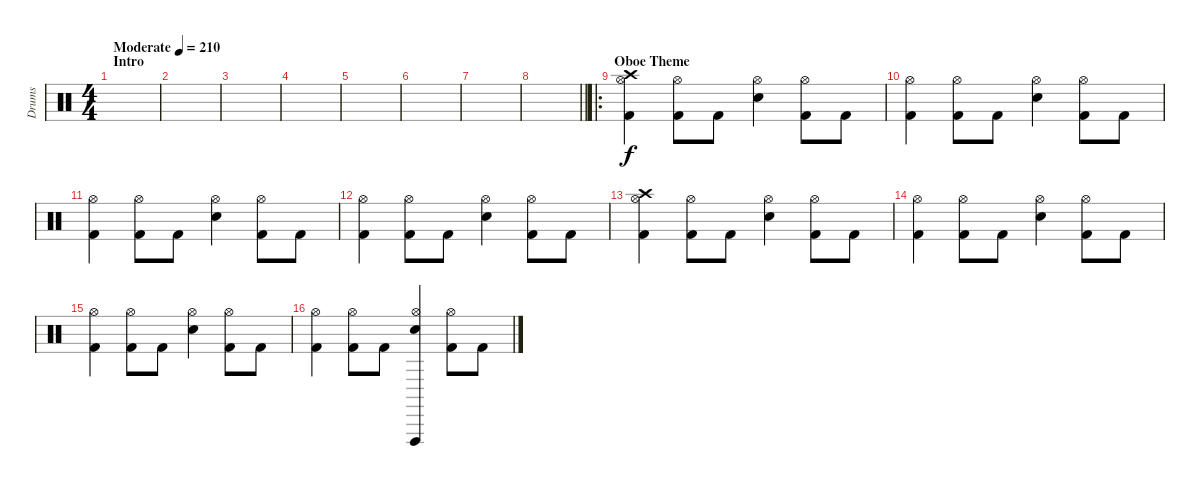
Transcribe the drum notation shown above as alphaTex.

\track ("Drums" "Drums") {instrument percussion}
\staff {score}
\articulation defaults
\ts (4 4)
\section ("" "Intro")
\tempo (210 "Moderate")
\clef neutral
\ks c
|
|
|
|
|
|
|
\barLineRight lightlight
|
\ro
\section ("" "Oboe Theme")
("Crash high (hit)" "Hi-Hat (open)" "Kick (hit) 2").4 ("Hi-Hat (open)" "Kick (hit) 2").8 "Kick (hit) 2".8 ("Hi-Hat (open)" "Snare (hit) 2").4 ("Hi-Hat (open)" "Kick (hit) 2").8 "Kick (hit) 2".8 |
("Hi-Hat (open)" "Kick (hit) 2").4 ("Hi-Hat (open)" "Kick (hit) 2").8 "Kick (hit) 2".8 ("Hi-Hat (open)" "Snare (hit) 2").4 ("Hi-Hat (open)" "Kick (hit) 2").8 "Kick (hit) 2".8 |
("Hi-Hat (open)" "Kick (hit) 2").4 ("Hi-Hat (open)" "Kick (hit) 2").8 "Kick (hit) 2".8 ("Hi-Hat (open)" "Snare (hit) 2").4 ("Hi-Hat (open)" "Kick (hit) 2").8 "Kick (hit) 2".8 |
("Hi-Hat (open)" "Kick (hit) 2").4 ("Hi-Hat (open)" "Kick (hit) 2").8 "Kick (hit) 2".8 ("Hi-Hat (open)" "Snare (hit) 2").4 ("Hi-Hat (open)" "Kick (hit) 2").8 "Kick (hit) 2".8 |
("Crash high (hit)" "Hi-Hat (open)" "Kick (hit) 2").4 ("Hi-Hat (open)" "Kick (hit) 2").8 "Kick (hit) 2".8 ("Hi-Hat (open)" "Snare (hit) 2").4 ("Hi-Hat (open)" "Kick (hit) 2").8 "Kick (hit) 2".8 |
("Hi-Hat (open)" "Kick (hit) 2").4 ("Hi-Hat (open)" "Kick (hit) 2").8 "Kick (hit) 2".8 ("Hi-Hat (open)" "Snare (hit) 2").4 ("Hi-Hat (open)" "Kick (hit) 2").8 "Kick (hit) 2".8 |
("Hi-Hat (open)" "Kick (hit) 2").4 ("Hi-Hat (open)" "Kick (hit) 2").8 "Kick (hit) 2".8 ("Hi-Hat (open)" "Snare (hit) 2").4 ("Hi-Hat (open)" "Kick (hit) 2").8 "Kick (hit) 2".8 |
("Hi-Hat (open)" "Kick (hit) 2").4 ("Hi-Hat (open)" "Kick (hit) 2").8 "Kick (hit) 2".8 ("Vibraslap (hit)" "Hi-Hat (open)" "Snare (hit) 2").4 ("Hi-Hat (open)" "Kick (hit) 2").8 "Kick (hit) 2".8
